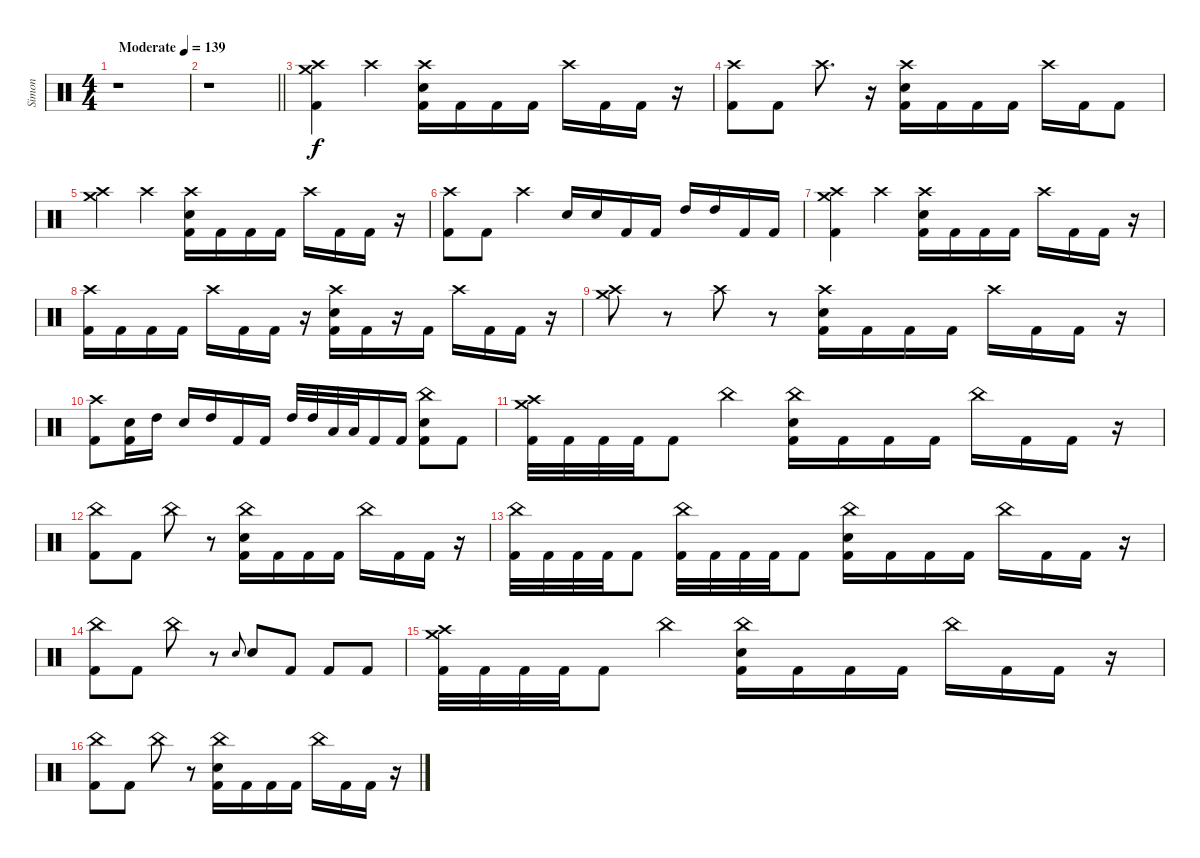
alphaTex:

\track ("Simon" "Simon") {instrument percussion}
\staff {score}
\articulation defaults
\ts (4 4)
\tempo (139 "Moderate")
\clef neutral
\ks c
r.1{dy f} |
\barLineRight lightlight
r.1 |
\section ("" "")
("Crash high (hit)" "Crash medium (hit)" "Kick (hit) 2").4 "Crash high (hit)".4 ("Crash high (hit)" "Electric Snare (hit)" "Kick (hit) 2").16 "Kick (hit) 2".16 "Kick (hit) 2".16 "Kick (hit) 2".16 "Crash high (hit)".16 "Kick (hit) 2".16 "Kick (hit) 2".16 r.16 |
("Crash high (hit)" "Kick (hit) 2").8 "Kick (hit) 2".8 "Crash high (hit)".8{d} r.16 ("Crash high (hit)" "Electric Snare (hit)" "Kick (hit) 2").16 "Kick (hit) 2".16 "Kick (hit) 2".16 "Kick (hit) 2".16 "Crash high (hit)".16 "Kick (hit) 2".16 "Kick (hit) 2".8 |
("Crash high (hit)" "Crash medium (hit)").4 "Crash high (hit)".4 ("Crash high (hit)" "Electric Snare (hit)" "Kick (hit) 2").16 "Kick (hit) 2".16 "Kick (hit) 2".16 "Kick (hit) 2".16 "Crash high (hit)".16 "Kick (hit) 2".16 "Kick (hit) 2".16 r.16 |
("Crash high (hit)" "Kick (hit) 2").8 "Kick (hit) 2".8 "Crash high (hit)".4 "Electric Snare (hit)".16 "Electric Snare (hit)".16 "Kick (hit) 2".16 "Kick (hit) 2".16 "High Tom (hit)".16 "High Tom (hit)".16 "Kick (hit) 2".16 "Kick (hit) 2".16 |
("Crash high (hit)" "Crash medium (hit)" "Kick (hit) 2").4 "Crash high (hit)".4 ("Crash high (hit)" "Electric Snare (hit)" "Kick (hit) 2").16 "Kick (hit) 2".16 "Kick (hit) 2".16 "Kick (hit) 2".16 "Crash high (hit)".16 "Kick (hit) 2".16 "Kick (hit) 2".16 r.16 |
("Crash high (hit)" "Kick (hit) 2").16 "Kick (hit) 2".16 "Kick (hit) 2".16 "Kick (hit) 2".16 "Crash high (hit)".16 "Kick (hit) 2".16 "Kick (hit) 2".16 r.16 ("Crash high (hit)" "Electric Snare (hit)" "Kick (hit) 2").16 "Kick (hit) 2".16 r.16 "Kick (hit) 2".16 "Crash high (hit)".16 "Kick (hit) 2".16 "Kick (hit) 2".16 r.16 |
("Crash high (hit)" "Crash medium (hit)").8 r.8 "Crash high (hit)".8 r.8 ("Crash high (hit)" "Electric Snare (hit)" "Kick (hit) 2").16 "Kick (hit) 2".16 "Kick (hit) 2".16 "Kick (hit) 2".16 "Crash high (hit)".16 "Kick (hit) 2".16 "Kick (hit) 2".16 r.16 |
("Crash high (hit)" "Kick (hit) 2").8 ("Electric Snare (hit)" "Kick (hit) 2").16 "High Tom (hit)".16 "Electric Snare (hit)".16 "High Tom (hit)".16 "Kick (hit) 2".16 "Kick (hit) 2".16 "High Tom (hit)".32 "High Tom (hit)".32 "Low Tom (hit)".32 "Low Tom (hit)".32 "Kick (hit) 2".16 "Kick (hit) 2".16 ("China (hit)" "Electric Snare (hit)" "Kick (hit) 2").8 "Kick (hit) 2".8 |
("Crash high (hit)" "Crash medium (hit)" "Kick (hit) 2").32 "Kick (hit) 2".32 "Kick (hit) 2".32 "Kick (hit) 2".32 "Kick (hit) 2".8 "China (hit)".4 ("China (hit)" "Electric Snare (hit)" "Kick (hit) 2").16 "Kick (hit) 2".16 "Kick (hit) 2".16 "Kick (hit) 2".16 "China (hit)".16 "Kick (hit) 2".16 "Kick (hit) 2".16 r.16 |
("China (hit)" "Kick (hit) 2").8 "Kick (hit) 2".8 "China (hit)".8 r.8 ("China (hit)" "Electric Snare (hit)" "Kick (hit) 2").16 "Kick (hit) 2".16 "Kick (hit) 2".16 "Kick (hit) 2".16 "China (hit)".16 "Kick (hit) 2".16 "Kick (hit) 2".16 r.16 |
("China (hit)" "Kick (hit) 2").32 "Kick (hit) 2".32 "Kick (hit) 2".32 "Kick (hit) 2".32 "Kick (hit) 2".8 ("China (hit)" "Kick (hit) 2").32 "Kick (hit) 2".32 "Kick (hit) 2".32 "Kick (hit) 2".32 "Kick (hit) 2".8 ("China (hit)" "Electric Snare (hit)" "Kick (hit) 2").16 "Kick (hit) 2".16 "Kick (hit) 2".16 "Kick (hit) 2".16 "China (hit)".16 "Kick (hit) 2".16 "Kick (hit) 2".16 r.16 |
("China (hit)" "Kick (hit) 2").8 "Kick (hit) 2".8 "China (hit)".8 r.8 "Electric Snare (hit)".8{gr onbeat} "Electric Snare (hit)".8 "Kick (hit) 2".8 "Kick (hit) 2".8 "Kick (hit) 2".8 |
("Crash high (hit)" "Crash medium (hit)" "Kick (hit) 2").32 "Kick (hit) 2".32 "Kick (hit) 2".32 "Kick (hit) 2".32 "Kick (hit) 2".8 "China (hit)".4 ("China (hit)" "Electric Snare (hit)" "Kick (hit) 2").16 "Kick (hit) 2".16 "Kick (hit) 2".16 "Kick (hit) 2".16 "China (hit)".16 "Kick (hit) 2".16 "Kick (hit) 2".16 r.16 |
("China (hit)" "Kick (hit) 2").8 "Kick (hit) 2".8 "China (hit)".8 r.8 ("China (hit)" "Electric Snare (hit)" "Kick (hit) 2").16 "Kick (hit) 2".16 "Kick (hit) 2".16 "Kick (hit) 2".16 "China (hit)".16 "Kick (hit) 2".16 "Kick (hit) 2".16 r.16
